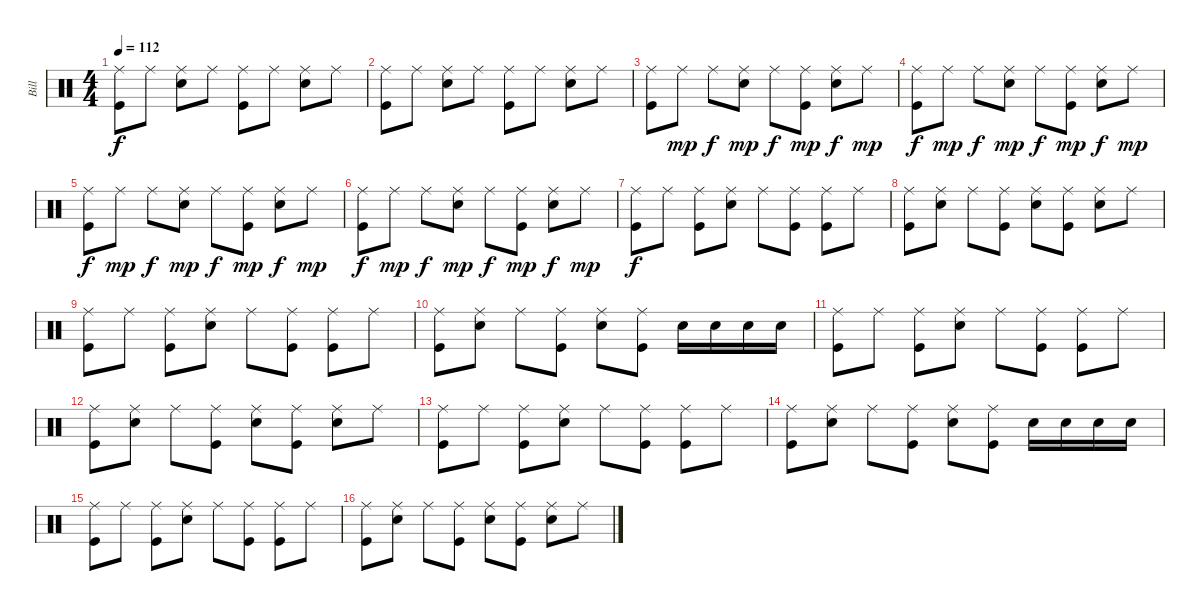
\track ("Bill" "Bill") {instrument percussion}
\staff {score}
\articulation defaults
\ts (4 4)
\tempo 112
\clef neutral
\ks c
("Ride (middle)" "Kick (hit)").8{dy f} "Ride (middle)".8 ("Ride (middle)" "Snare (hit) 2").8 "Ride (middle)".8 ("Ride (middle)" "Kick (hit)").8 "Ride (middle)".8 ("Ride (middle)" "Snare (hit) 2").8 "Ride (middle)".8 |
("Ride (middle)" "Kick (hit)").8 "Ride (middle)".8 ("Ride (middle)" "Snare (hit) 2").8 "Ride (middle)".8 ("Ride (middle)" "Kick (hit)").8 "Ride (middle)".8 ("Ride (middle)" "Snare (hit) 2").8 "Ride (middle)".8 |
("Ride (middle)" "Kick (hit)").8 "Ride (middle)".8{dy mp} "Ride (middle)".8{dy f} ("Ride (middle)" "Snare (hit) 2").8{dy mp} "Ride (middle)".8{dy f} ("Ride (middle)" "Kick (hit)").8{dy mp} ("Ride (middle)" "Snare (hit) 2").8{dy f} "Ride (middle)".8{dy mp} |
("Ride (middle)" "Kick (hit)").8{dy f} "Ride (middle)".8{dy mp} "Ride (middle)".8{dy f} ("Ride (middle)" "Snare (hit) 2").8{dy mp} "Ride (middle)".8{dy f} ("Ride (middle)" "Kick (hit)").8{dy mp} ("Ride (middle)" "Snare (hit) 2").8{dy f} "Ride (middle)".8{dy mp} |
("Ride (middle)" "Kick (hit)").8{dy f} "Ride (middle)".8{dy mp} "Ride (middle)".8{dy f} ("Ride (middle)" "Snare (hit) 2").8{dy mp} "Ride (middle)".8{dy f} ("Ride (middle)" "Kick (hit)").8{dy mp} ("Ride (middle)" "Snare (hit) 2").8{dy f} "Ride (middle)".8{dy mp} |
("Ride (middle)" "Kick (hit)").8{dy f} "Ride (middle)".8{dy mp} "Ride (middle)".8{dy f} ("Ride (middle)" "Snare (hit) 2").8{dy mp} "Ride (middle)".8{dy f} ("Ride (middle)" "Kick (hit)").8{dy mp} ("Ride (middle)" "Snare (hit) 2").8{dy f} "Ride (middle)".8{dy mp} |
("Ride (middle)" "Kick (hit)").8{dy f} "Ride (middle)".8 ("Ride (middle)" "Kick (hit)").8 ("Ride (middle)" "Snare (hit) 2").8 "Ride (middle)".8 ("Ride (middle)" "Kick (hit)").8 ("Ride (middle)" "Kick (hit)").8 "Ride (middle)".8 |
("Ride (middle)" "Kick (hit)").8 ("Ride (middle)" "Snare (hit) 2").8 "Ride (middle)".8 ("Ride (middle)" "Kick (hit)").8 ("Ride (middle)" "Snare (hit) 2").8 ("Ride (middle)" "Kick (hit)").8 ("Ride (middle)" "Snare (hit) 2").8 "Ride (middle)".8 |
("Ride (middle)" "Kick (hit)").8 "Ride (middle)".8 ("Ride (middle)" "Kick (hit)").8 ("Ride (middle)" "Snare (hit) 2").8 "Ride (middle)".8 ("Ride (middle)" "Kick (hit)").8 ("Ride (middle)" "Kick (hit)").8 "Ride (middle)".8 |
("Ride (middle)" "Kick (hit)").8 ("Ride (middle)" "Snare (hit) 2").8 "Ride (middle)".8 ("Ride (middle)" "Kick (hit)").8 ("Ride (middle)" "Snare (hit) 2").8 ("Ride (middle)" "Kick (hit)").8 "Snare (hit) 2".16 "Snare (hit) 2".16 "Snare (hit) 2".16 "Snare (hit) 2".16 |
("Ride (middle)" "Kick (hit)").8 "Ride (middle)".8 ("Ride (middle)" "Kick (hit)").8 ("Ride (middle)" "Snare (hit) 2").8 "Ride (middle)".8 ("Ride (middle)" "Kick (hit)").8 ("Ride (middle)" "Kick (hit)").8 "Ride (middle)".8 |
("Ride (middle)" "Kick (hit)").8 ("Ride (middle)" "Snare (hit) 2").8 "Ride (middle)".8 ("Ride (middle)" "Kick (hit)").8 ("Ride (middle)" "Snare (hit) 2").8 ("Ride (middle)" "Kick (hit)").8 ("Ride (middle)" "Snare (hit) 2").8 "Ride (middle)".8 |
("Ride (middle)" "Kick (hit)").8 "Ride (middle)".8 ("Ride (middle)" "Kick (hit)").8 ("Ride (middle)" "Snare (hit) 2").8 "Ride (middle)".8 ("Ride (middle)" "Kick (hit)").8 ("Ride (middle)" "Kick (hit)").8 "Ride (middle)".8 |
("Ride (middle)" "Kick (hit)").8 ("Ride (middle)" "Snare (hit) 2").8 "Ride (middle)".8 ("Ride (middle)" "Kick (hit)").8 ("Ride (middle)" "Snare (hit) 2").8 ("Ride (middle)" "Kick (hit)").8 "Snare (hit) 2".16 "Snare (hit) 2".16 "Snare (hit) 2".16 "Snare (hit) 2".16 |
("Ride (middle)" "Kick (hit)").8 "Ride (middle)".8 ("Ride (middle)" "Kick (hit)").8 ("Ride (middle)" "Snare (hit) 2").8 "Ride (middle)".8 ("Ride (middle)" "Kick (hit)").8 ("Ride (middle)" "Kick (hit)").8 "Ride (middle)".8 |
("Ride (middle)" "Kick (hit)").8 ("Ride (middle)" "Snare (hit) 2").8 "Ride (middle)".8 ("Ride (middle)" "Kick (hit)").8 ("Ride (middle)" "Snare (hit) 2").8 ("Ride (middle)" "Kick (hit)").8 ("Ride (middle)" "Snare (hit) 2").8 "Ride (middle)".8
